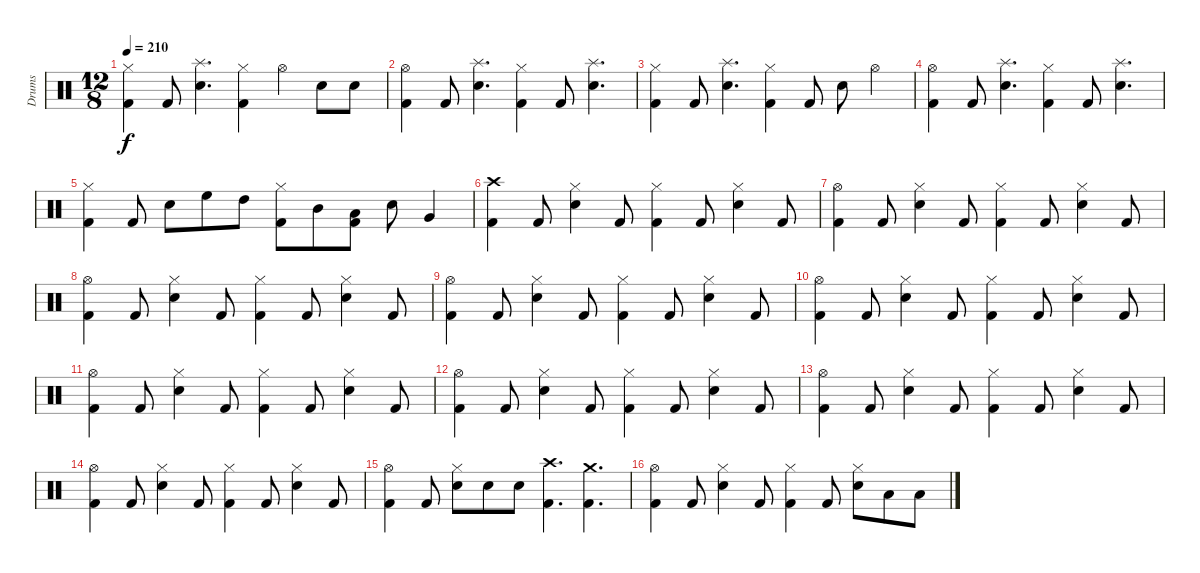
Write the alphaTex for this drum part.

\track ("Drums" "Drums") {instrument percussion}
\staff {score}
\articulation defaults
\ts (12 8)
\tempo 210
\clef neutral
\ks c
("Kick (hit) 2" "Hi-Hat (closed)").4{dy f} "Kick (hit) 2".8 ("Snare (hit) 2" "Splash (hit)").4{d} ("Kick (hit) 2" "Hi-Hat (closed)").4 "Hi-Hat (open)".4 "Snare (hit) 2".8 "Snare (hit) 2".8 |
("Kick (hit) 2" "Hi-Hat (open)").4 "Kick (hit) 2".8 ("Snare (hit) 2" "Splash (hit)").4{d} ("Kick (hit) 2" "Hi-Hat (closed)").4 "Kick (hit) 2".8 ("Snare (hit) 2" "Splash (hit)").4{d} |
("Kick (hit) 2" "Hi-Hat (closed)").4 "Kick (hit) 2".8 ("Snare (hit) 2" "Splash (hit)").4{d} ("Kick (hit) 2" "Hi-Hat (closed)").4 "Kick (hit) 2".8 "Snare (hit) 2".8 "Hi-Hat (open)".4 |
("Kick (hit) 2" "Hi-Hat (open)").4 "Kick (hit) 2".8 ("Snare (hit) 2" "Splash (hit)").4{d} ("Kick (hit) 2" "Hi-Hat (closed)").4 "Kick (hit) 2".8 ("Snare (hit) 2" "Splash (hit)").4{d} |
("Kick (hit) 2" "Hi-Hat (closed)").4 "Kick (hit) 2".8 "Snare (hit) 2".8 "High Floor Tom (hit)".8 "High Tom (hit)".8 ("Kick (hit) 2" "Hi-Hat (closed)").8 "Mid Tom (hit)".8 ("Kick (hit) 2" "Low Tom (hit)").8 "Snare (hit) 2".8 "Very Low Tom (hit)".4 |
("Kick (hit) 2" "Crash high (hit)").4 "Kick (hit) 2".8 ("Snare (hit) 2" "Hi-Hat (closed)").4 "Kick (hit) 2".8 ("Kick (hit) 2" "Hi-Hat (closed)").4 "Kick (hit) 2".8 ("Snare (hit) 2" "Hi-Hat (closed)").4 "Kick (hit) 2".8 |
("Kick (hit) 2" "Hi-Hat (open)").4 "Kick (hit) 2".8 ("Snare (hit) 2" "Hi-Hat (closed)").4 "Kick (hit) 2".8 ("Kick (hit) 2" "Hi-Hat (closed)").4 "Kick (hit) 2".8 ("Snare (hit) 2" "Hi-Hat (closed)").4 "Kick (hit) 2".8 |
("Kick (hit) 2" "Hi-Hat (open)").4 "Kick (hit) 2".8 ("Snare (hit) 2" "Hi-Hat (closed)").4 "Kick (hit) 2".8 ("Kick (hit) 2" "Hi-Hat (closed)").4 "Kick (hit) 2".8 ("Snare (hit) 2" "Hi-Hat (closed)").4 "Kick (hit) 2".8 |
("Kick (hit) 2" "Hi-Hat (open)").4 "Kick (hit) 2".8 ("Snare (hit) 2" "Hi-Hat (closed)").4 "Kick (hit) 2".8 ("Kick (hit) 2" "Hi-Hat (closed)").4 "Kick (hit) 2".8 ("Snare (hit) 2" "Hi-Hat (closed)").4 "Kick (hit) 2".8 |
("Kick (hit) 2" "Hi-Hat (open)").4 "Kick (hit) 2".8 ("Snare (hit) 2" "Hi-Hat (closed)").4 "Kick (hit) 2".8 ("Kick (hit) 2" "Hi-Hat (closed)").4 "Kick (hit) 2".8 ("Snare (hit) 2" "Hi-Hat (closed)").4 "Kick (hit) 2".8 |
("Kick (hit) 2" "Hi-Hat (open)").4 "Kick (hit) 2".8 ("Snare (hit) 2" "Hi-Hat (closed)").4 "Kick (hit) 2".8 ("Kick (hit) 2" "Hi-Hat (closed)").4 "Kick (hit) 2".8 ("Snare (hit) 2" "Hi-Hat (closed)").4 "Kick (hit) 2".8 |
("Kick (hit) 2" "Hi-Hat (open)").4 "Kick (hit) 2".8 ("Snare (hit) 2" "Hi-Hat (closed)").4 "Kick (hit) 2".8 ("Kick (hit) 2" "Hi-Hat (closed)").4 "Kick (hit) 2".8 ("Snare (hit) 2" "Hi-Hat (closed)").4 "Kick (hit) 2".8 |
("Kick (hit) 2" "Hi-Hat (open)").4 "Kick (hit) 2".8 ("Snare (hit) 2" "Hi-Hat (closed)").4 "Kick (hit) 2".8 ("Kick (hit) 2" "Hi-Hat (closed)").4 "Kick (hit) 2".8 ("Snare (hit) 2" "Hi-Hat (closed)").4 "Kick (hit) 2".8 |
("Kick (hit) 2" "Hi-Hat (open)").4 "Kick (hit) 2".8 ("Snare (hit) 2" "Hi-Hat (closed)").4 "Kick (hit) 2".8 ("Kick (hit) 2" "Hi-Hat (closed)").4 "Kick (hit) 2".8 ("Snare (hit) 2" "Hi-Hat (closed)").4 "Kick (hit) 2".8 |
("Kick (hit) 2" "Hi-Hat (open)").4 "Kick (hit) 2".8 ("Snare (hit) 2" "Hi-Hat (closed)").8 "Snare (hit) 2".8 "Snare (hit) 2".8 ("Kick (hit) 2" "Crash high (hit)").4{d} ("Kick (hit) 2" "Crash medium (hit)").4{d} |
("Kick (hit) 2" "Hi-Hat (open)").4 "Kick (hit) 2".8 ("Snare (hit) 2" "Hi-Hat (closed)").4 "Kick (hit) 2".8 ("Kick (hit) 2" "Hi-Hat (closed)").4 "Kick (hit) 2".8 ("Snare (hit) 2" "Hi-Hat (closed)").8 "Low Tom (hit)".8 "Low Tom (hit)".8
